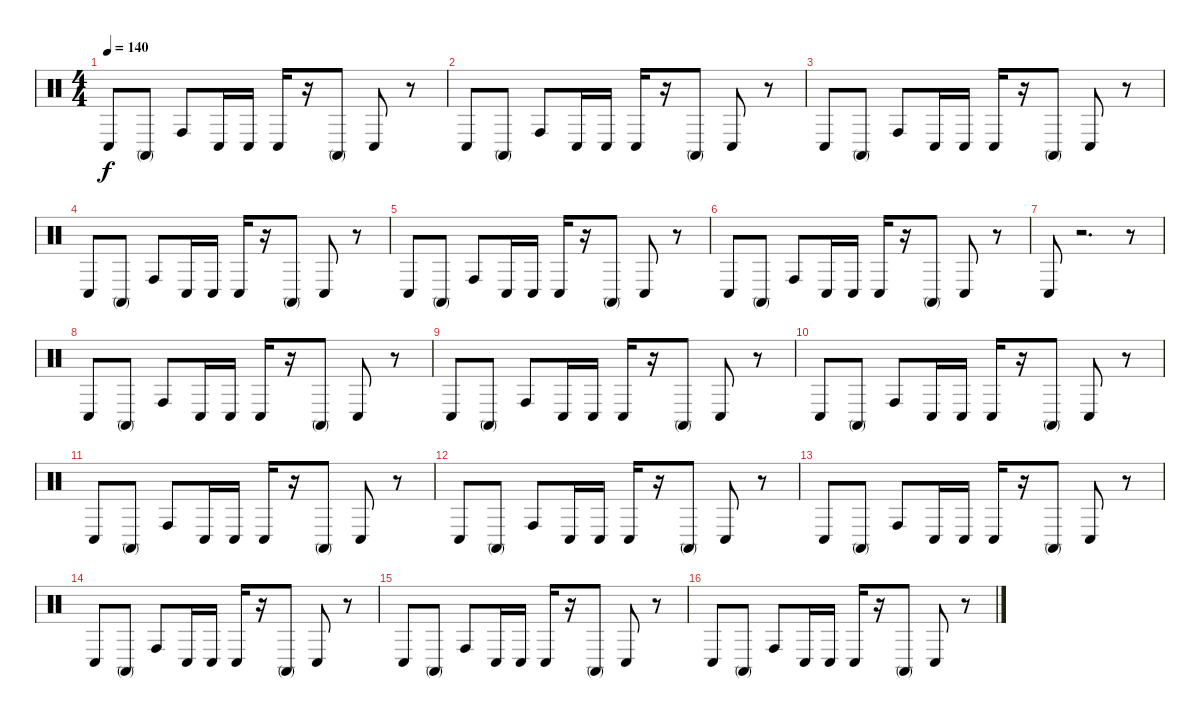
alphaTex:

\track "" {instrument percussion}
\staff {score}
\articulation defaults
\ts (4 4)
\tempo 140
\clef neutral
\ks c "Conga low (hit)".8{dy f} "Conga high (mute)".8 "Conga high (hit)".8 "Conga low (hit)".16 "Conga low (hit)".16 "Conga low (hit)".16
r.16 "Conga high (mute)".8 "Conga low (hit)".8 r.8 |
"Conga low (hit)".8 "Conga high (mute)".8 "Conga high (hit)".8 "Conga low (hit)".16 "Conga low (hit)".16 "Conga low (hit)".16 r.16 "Conga high (mute)".8 "Conga low (hit)".8 r.8 |
"Conga low (hit)".8 "Conga high (mute)".8 "Conga high (hit)".8 "Conga low (hit)".16 "Conga low (hit)".16 "Conga low (hit)".16 r.16 "Conga high (mute)".8 "Conga low (hit)".8 r.8 |
"Conga low (hit)".8 "Conga high (mute)".8 "Conga high (hit)".8 "Conga low (hit)".16 "Conga low (hit)".16 "Conga low (hit)".16 r.16 "Conga high (mute)".8 "Conga low (hit)".8 r.8 |
"Conga low (hit)".8 "Conga high (mute)".8 "Conga high (hit)".8 "Conga low (hit)".16 "Conga low (hit)".16 "Conga low (hit)".16 r.16 "Conga high (mute)".8 "Conga low (hit)".8 r.8 |
"Conga low (hit)".8 "Conga high (mute)".8 "Conga high (hit)".8 "Conga low (hit)".16 "Conga low (hit)".16 "Conga low (hit)".16 r.16 "Conga high (mute)".8 "Conga low (hit)".8 r.8 |
"Conga low (hit)".8 r.2{d} r.8 |
"Conga low (hit)".8 "Conga high (mute)".8 "Conga high (hit)".8 "Conga low (hit)".16 "Conga low (hit)".16 "Conga low (hit)".16 r.16 "Conga high (mute)".8 "Conga low (hit)".8 r.8 |
"Conga low (hit)".8 "Conga high (mute)".8 "Conga high (hit)".8 "Conga low (hit)".16 "Conga low (hit)".16 "Conga low (hit)".16 r.16 "Conga high (mute)".8 "Conga low (hit)".8 r.8 |
"Conga low (hit)".8 "Conga high (mute)".8 "Conga high (hit)".8 "Conga low (hit)".16 "Conga low (hit)".16 "Conga low (hit)".16 r.16 "Conga high (mute)".8 "Conga low (hit)".8 r.8 |
"Conga low (hit)".8 "Conga high (mute)".8 "Conga high (hit)".8 "Conga low (hit)".16 "Conga low (hit)".16 "Conga low (hit)".16 r.16 "Conga high (mute)".8 "Conga low (hit)".8 r.8 |
"Conga low (hit)".8 "Conga high (mute)".8 "Conga high (hit)".8 "Conga low (hit)".16 "Conga low (hit)".16 "Conga low (hit)".16 r.16 "Conga high (mute)".8 "Conga low (hit)".8 r.8 |
"Conga low (hit)".8 "Conga high (mute)".8 "Conga high (hit)".8 "Conga low (hit)".16 "Conga low (hit)".16 "Conga low (hit)".16 r.16 "Conga high (mute)".8 "Conga low (hit)".8 r.8 |
"Conga low (hit)".8 "Conga high (mute)".8 "Conga high (hit)".8 "Conga low (hit)".16 "Conga low (hit)".16 "Conga low (hit)".16 r.16 "Conga high (mute)".8 "Conga low (hit)".8 r.8 |
"Conga low (hit)".8 "Conga high (mute)".8 "Conga high (hit)".8 "Conga low (hit)".16 "Conga low (hit)".16 "Conga low (hit)".16 r.16 "Conga high (mute)".8 "Conga low (hit)".8 r.8 |
"Conga low (hit)".8 "Conga high (mute)".8 "Conga high (hit)".8 "Conga low (hit)".16 "Conga low (hit)".16 "Conga low (hit)".16 r.16 "Conga high (mute)".8 "Conga low (hit)".8 r.8
